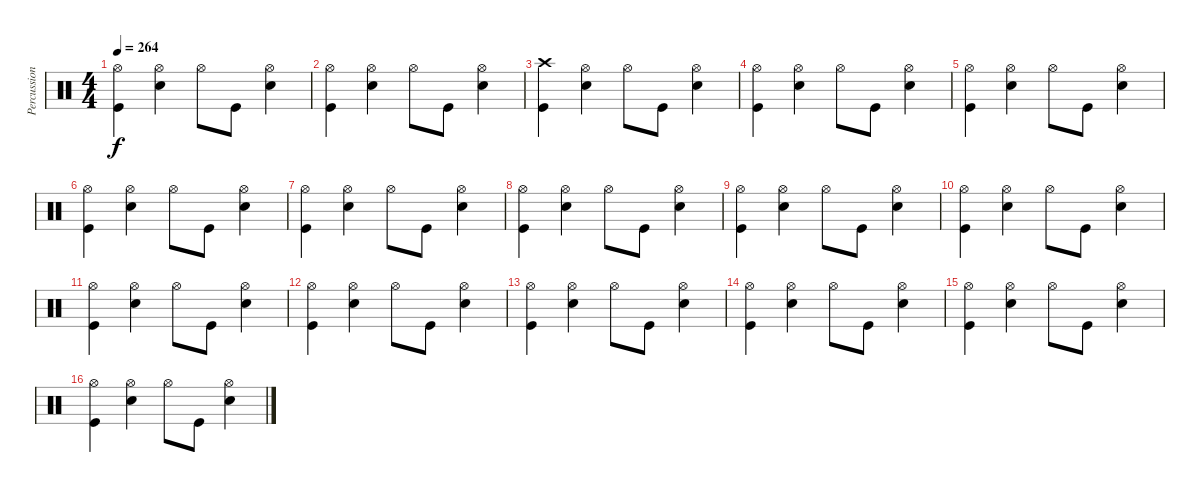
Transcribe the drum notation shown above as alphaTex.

\track ("Percussion" "Percussion") {instrument percussion}
\staff {score}
\articulation defaults
\ts (4 4)
\tempo 264
\clef neutral
\ks c
("Hi-Hat (open)" "Kick (hit)").4{dy f} ("Hi-Hat (open)" "Snare (hit) 2").4 "Hi-Hat (open)".8 "Kick (hit)".8 ("Hi-Hat (open)" "Snare (hit) 2").4 |
("Hi-Hat (open)" "Kick (hit)").4 ("Hi-Hat (open)" "Snare (hit) 2").4 "Hi-Hat (open)".8 "Kick (hit)".8 ("Hi-Hat (open)" "Snare (hit) 2").4 |
("Crash high (hit)" "Kick (hit)").4 ("Hi-Hat (open)" "Snare (hit) 2").4 "Hi-Hat (open)".8 "Kick (hit)".8 ("Hi-Hat (open)" "Snare (hit) 2").4 |
("Hi-Hat (open)" "Kick (hit)").4 ("Hi-Hat (open)" "Snare (hit) 2").4 "Hi-Hat (open)".8 "Kick (hit)".8 ("Hi-Hat (open)" "Snare (hit) 2").4 |
("Hi-Hat (open)" "Kick (hit)").4 ("Hi-Hat (open)" "Snare (hit) 2").4 "Hi-Hat (open)".8 "Kick (hit)".8 ("Hi-Hat (open)" "Snare (hit) 2").4 |
("Hi-Hat (open)" "Kick (hit)").4 ("Hi-Hat (open)" "Snare (hit) 2").4 "Hi-Hat (open)".8 "Kick (hit)".8 ("Hi-Hat (open)" "Snare (hit) 2").4 |
("Hi-Hat (open)" "Kick (hit)").4 ("Hi-Hat (open)" "Snare (hit) 2").4 "Hi-Hat (open)".8 "Kick (hit)".8 ("Hi-Hat (open)" "Snare (hit) 2").4 |
("Hi-Hat (open)" "Kick (hit)").4 ("Hi-Hat (open)" "Snare (hit) 2").4 "Hi-Hat (open)".8 "Kick (hit)".8 ("Hi-Hat (open)" "Snare (hit) 2").4 |
("Hi-Hat (open)" "Kick (hit)").4 ("Hi-Hat (open)" "Snare (hit) 2").4 "Hi-Hat (open)".8 "Kick (hit)".8 ("Hi-Hat (open)" "Snare (hit) 2").4 |
("Hi-Hat (open)" "Kick (hit)").4 ("Hi-Hat (open)" "Snare (hit) 2").4 "Hi-Hat (open)".8 "Kick (hit)".8 ("Hi-Hat (open)" "Snare (hit) 2").4 |
("Hi-Hat (open)" "Kick (hit)").4 ("Hi-Hat (open)" "Snare (hit) 2").4 "Hi-Hat (open)".8 "Kick (hit)".8 ("Hi-Hat (open)" "Snare (hit) 2").4 |
("Hi-Hat (open)" "Kick (hit)").4 ("Hi-Hat (open)" "Snare (hit) 2").4 "Hi-Hat (open)".8 "Kick (hit)".8 ("Hi-Hat (open)" "Snare (hit) 2").4 |
("Hi-Hat (open)" "Kick (hit)").4 ("Hi-Hat (open)" "Snare (hit) 2").4 "Hi-Hat (open)".8 "Kick (hit)".8 ("Hi-Hat (open)" "Snare (hit) 2").4 |
("Hi-Hat (open)" "Kick (hit)").4 ("Hi-Hat (open)" "Snare (hit) 2").4 "Hi-Hat (open)".8 "Kick (hit)".8 ("Hi-Hat (open)" "Snare (hit) 2").4 |
("Hi-Hat (open)" "Kick (hit)").4 ("Hi-Hat (open)" "Snare (hit) 2").4 "Hi-Hat (open)".8 "Kick (hit)".8 ("Hi-Hat (open)" "Snare (hit) 2").4 |
("Hi-Hat (open)" "Kick (hit)").4 ("Hi-Hat (open)" "Snare (hit) 2").4 "Hi-Hat (open)".8 "Kick (hit)".8 ("Hi-Hat (open)" "Snare (hit) 2").4
